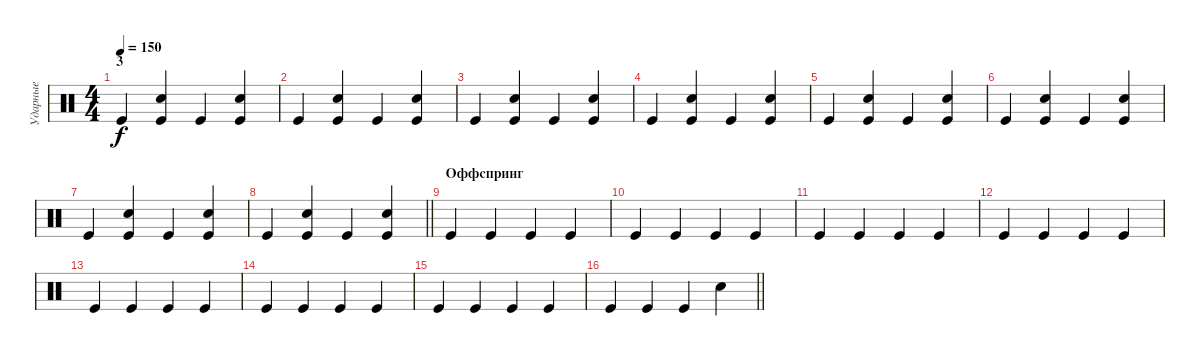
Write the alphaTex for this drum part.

\track ("Ударные" "Ударные") {instrument percussion}
\staff {score}
\articulation defaults
\ts (4 4)
\section ("" "3")
\tempo 150
\clef neutral
\ks c "Kick (hit)".4{dy f}
("Kick (hit)" "Snare (hit) 2").4 "Kick (hit)".4 ("Kick (hit)" "Snare (hit) 2").4 |
"Kick (hit)".4 ("Kick (hit)" "Snare (hit) 2").4 "Kick (hit)".4 ("Kick (hit)" "Snare (hit) 2").4 |
"Kick (hit)".4 ("Kick (hit)" "Snare (hit) 2").4 "Kick (hit)".4 ("Kick (hit)" "Snare (hit) 2").4 |
"Kick (hit)".4 ("Kick (hit)" "Snare (hit) 2").4 "Kick (hit)".4 ("Kick (hit)" "Snare (hit) 2").4 |
"Kick (hit)".4 ("Kick (hit)" "Snare (hit) 2").4 "Kick (hit)".4 ("Kick (hit)" "Snare (hit) 2").4 |
"Kick (hit)".4 ("Kick (hit)" "Snare (hit) 2").4 "Kick (hit)".4 ("Kick (hit)" "Snare (hit) 2").4 |
"Kick (hit)".4 ("Kick (hit)" "Snare (hit) 2").4 "Kick (hit)".4 ("Kick (hit)" "Snare (hit) 2").4 |
\barLineRight lightlight "Kick (hit)".4
("Kick (hit)" "Snare (hit) 2").4 "Kick (hit)".4 ("Kick (hit)" "Snare (hit) 2").4 |
\section ("" "Оффспринг")
"Kick (hit)".4 "Kick (hit)".4 "Kick (hit)".4 "Kick (hit)".4 |
"Kick (hit)".4 "Kick (hit)".4 "Kick (hit)".4 "Kick (hit)".4 |
"Kick (hit)".4 "Kick (hit)".4 "Kick (hit)".4 "Kick (hit)".4 |
"Kick (hit)".4 "Kick (hit)".4 "Kick (hit)".4 "Kick (hit)".4 |
"Kick (hit)".4 "Kick (hit)".4 "Kick (hit)".4 "Kick (hit)".4 |
"Kick (hit)".4 "Kick (hit)".4 "Kick (hit)".4 "Kick (hit)".4 |
"Kick (hit)".4 "Kick (hit)".4 "Kick (hit)".4 "Kick (hit)".4 |
\barLineRight lightlight "Kick (hit)".4 "Kick (hit)".4 "Kick (hit)".4 "Snare (hit) 2".4
